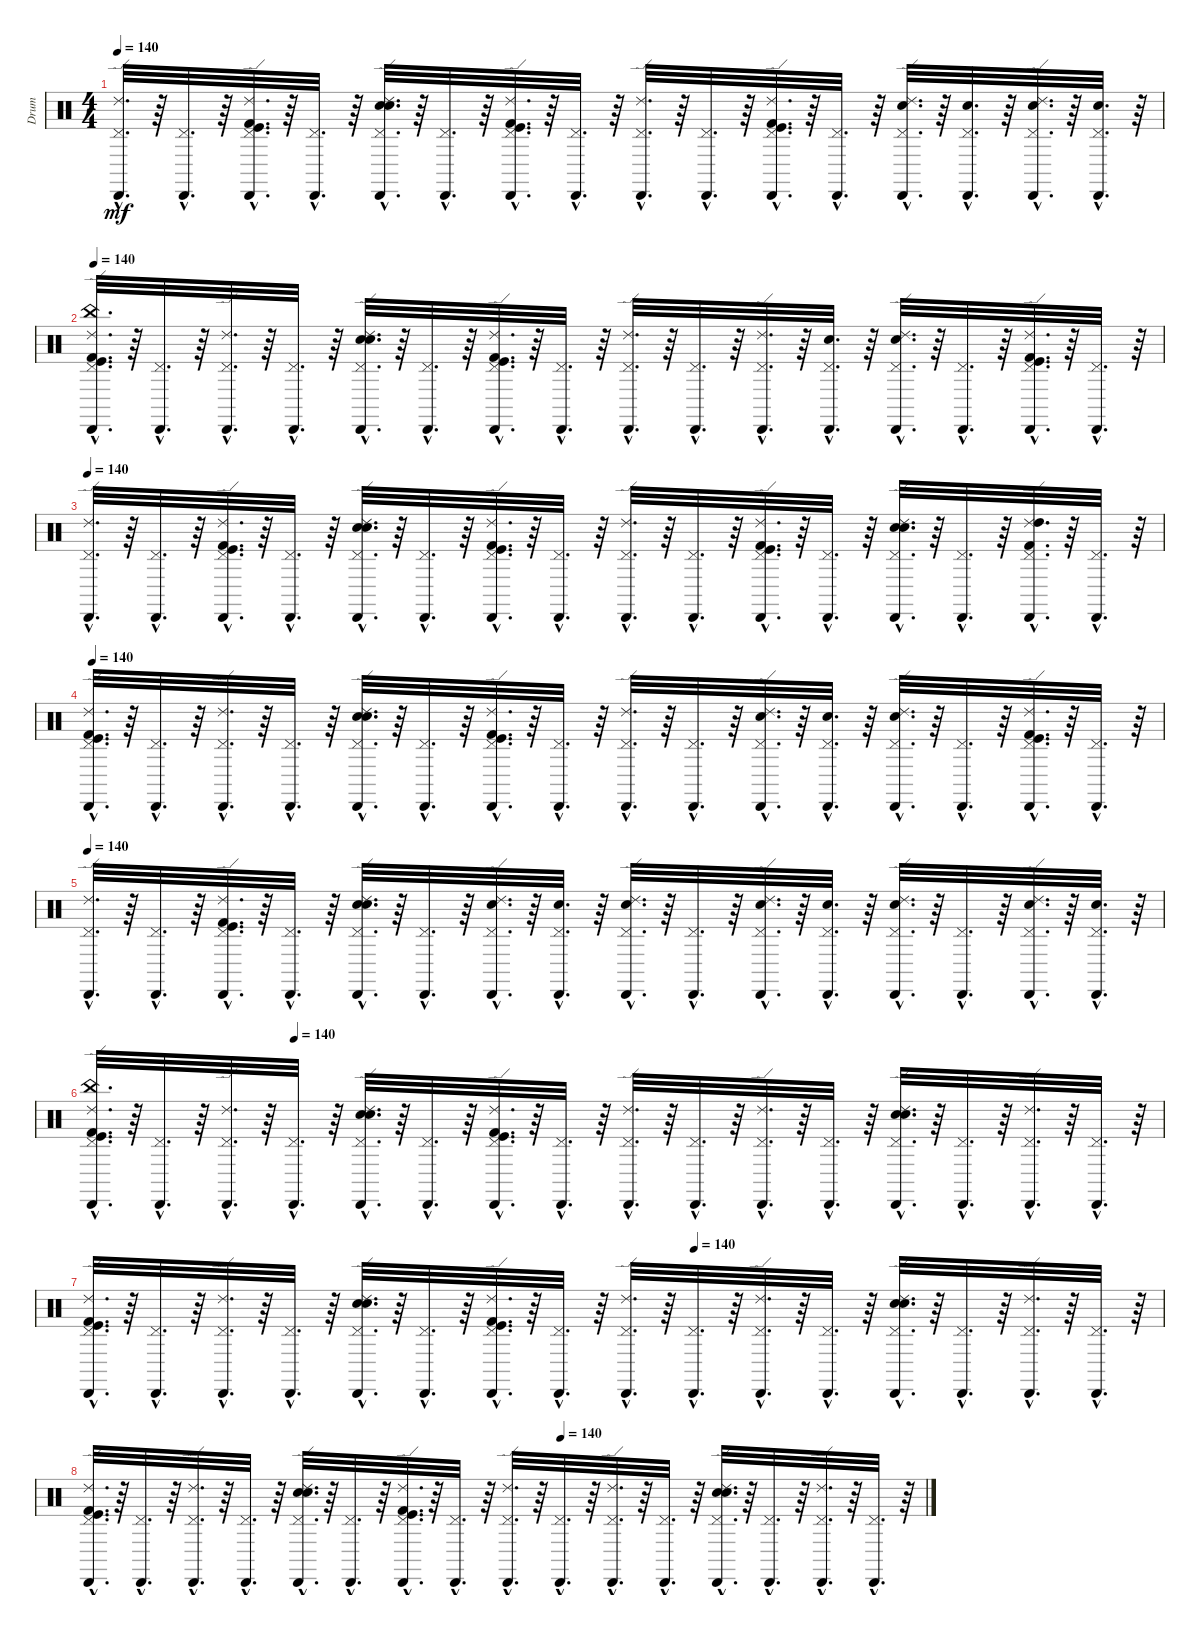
\track ("Drum" "Drum") {instrument percussion}
\staff {score}
\articulation defaults
\ts (4 4)
\tempo 140
\clef neutral
\ks c
("Pedal Hi-Hat (hit)"{hac} "Cabasa (hit)"{hac} "Ride (edge) 2"{hac}).32{d dy mf} r.64 ("Pedal Hi-Hat (hit)"{hac} "Cabasa (hit)"{hac}).32{d} r.64 ("Pedal Hi-Hat (hit)"{hac} "Cabasa (hit)"{hac} "Ride (edge) 2"{hac} "Kick (hit)"{hac} "Kick (hit) 2"{hac}).32{d} r.64 ("Pedal Hi-Hat (hit)"{hac} "Cabasa (hit)"{hac}).32{d} r.64 ("Pedal Hi-Hat (hit)"{hac} "Cabasa (hit)"{hac} "Ride (edge) 2"{hac} "Electric Snare (hit)"{hac} "Snare (hit) 2"{hac}).32{d} r.64 ("Pedal Hi-Hat (hit)"{hac} "Cabasa (hit)"{hac}).32{d} r.64 ("Pedal Hi-Hat (hit)"{hac} "Cabasa (hit)"{hac} "Ride (edge) 2"{hac} "Kick (hit) 2"{hac} "Kick (hit)"{hac}).32{d} r.64 ("Pedal Hi-Hat (hit)"{hac} "Cabasa (hit)"{hac}).32{d} r.64 ("Pedal Hi-Hat (hit)"{hac} "Cabasa (hit)"{hac} "Ride (edge) 2"{hac}).32{d} r.64 ("Pedal Hi-Hat (hit)"{hac} "Cabasa (hit)"{hac}).32{d} r.64 ("Pedal Hi-Hat (hit)"{hac} "Cabasa (hit)"{hac} "Ride (edge) 2"{hac} "Kick (hit)"{hac} "Kick (hit) 2"{hac}).32{d} r.64 ("Pedal Hi-Hat (hit)"{hac} "Cabasa (hit)"{hac}).32{d} r.64 ("Snare (hit) 2"{hac} "Pedal Hi-Hat (hit)"{hac} "Cabasa (hit)"{hac} "Ride (edge) 2"{hac}).32{d} r.64 ("Snare (hit) 2"{hac} "Pedal Hi-Hat (hit)"{hac} "Cabasa (hit)"{hac}).32{d} r.64 ("Snare (hit) 2"{hac} "Pedal Hi-Hat (hit)"{hac} "Cabasa (hit)"{hac} "Ride (edge) 2"{hac}).32{d} r.64 ("Snare (hit) 2"{hac} "Pedal Hi-Hat (hit)"{hac} "Cabasa (hit)"{hac}).32{d} r.64 |
\tempo 140
("China (hit)"{hac} "Kick (hit) 2"{hac} "Kick (hit)"{hac} "Ride (edge) 2"{hac} "Cabasa (hit)"{hac} "Pedal Hi-Hat (hit)"{hac}).32{d} r.64 ("Cabasa (hit)"{hac} "Pedal Hi-Hat (hit)"{hac}).32{d} r.64 ("Ride (edge) 2"{hac} "Cabasa (hit)"{hac} "Pedal Hi-Hat (hit)"{hac}).32{d} r.64 ("Cabasa (hit)"{hac} "Pedal Hi-Hat (hit)"{hac}).32{d} r.64 ("Snare (hit) 2"{hac} "Electric Snare (hit)"{hac} "Ride (edge) 2"{hac} "Cabasa (hit)"{hac} "Pedal Hi-Hat (hit)"{hac}).32{d} r.64 ("Cabasa (hit)"{hac} "Pedal Hi-Hat (hit)"{hac}).32{d} r.64 ("Kick (hit)"{hac} "Kick (hit) 2"{hac} "Ride (edge) 2"{hac} "Cabasa (hit)"{hac} "Pedal Hi-Hat (hit)"{hac}).32{d} r.64 ("Cabasa (hit)"{hac} "Pedal Hi-Hat (hit)"{hac}).32{d} r.64 ("Ride (edge) 2"{hac} "Cabasa (hit)"{hac} "Pedal Hi-Hat (hit)"{hac}).32{d} r.64 ("Cabasa (hit)"{hac} "Pedal Hi-Hat (hit)"{hac}).32{d} r.64 ("Ride (edge) 2"{hac} "Cabasa (hit)"{hac} "Pedal Hi-Hat (hit)"{hac}).32{d} r.64 ("Cabasa (hit)"{hac} "Pedal Hi-Hat (hit)"{hac} "Snare (hit) 2"{hac}).32{d} r.64 ("Ride (edge) 2"{hac} "Cabasa (hit)"{hac} "Pedal Hi-Hat (hit)"{hac} "Snare (hit) 2"{hac}).32{d} r.64 ("Cabasa (hit)"{hac} "Pedal Hi-Hat (hit)"{hac}).32{d} r.64 ("Ride (edge) 2"{hac} "Cabasa (hit)"{hac} "Pedal Hi-Hat (hit)"{hac} "Kick (hit)"{hac} "Kick (hit) 2"{hac}).32{d} r.64 ("Cabasa (hit)"{hac} "Pedal Hi-Hat (hit)"{hac}).32{d} r.64 |
\tempo 140
("Pedal Hi-Hat (hit)"{hac} "Cabasa (hit)"{hac} "Ride (edge) 2"{hac}).32{d} r.64 ("Pedal Hi-Hat (hit)"{hac} "Cabasa (hit)"{hac}).32{d} r.64 ("Pedal Hi-Hat (hit)"{hac} "Cabasa (hit)"{hac} "Ride (edge) 2"{hac} "Kick (hit)"{hac} "Kick (hit) 2"{hac}).32{d} r.64 ("Pedal Hi-Hat (hit)"{hac} "Cabasa (hit)"{hac}).32{d} r.64 ("Pedal Hi-Hat (hit)"{hac} "Cabasa (hit)"{hac} "Ride (edge) 2"{hac} "Electric Snare (hit)"{hac} "Snare (hit) 2"{hac}).32{d} r.64 ("Pedal Hi-Hat (hit)"{hac} "Cabasa (hit)"{hac}).32{d} r.64 ("Pedal Hi-Hat (hit)"{hac} "Cabasa (hit)"{hac} "Ride (edge) 2"{hac} "Kick (hit) 2"{hac} "Kick (hit)"{hac}).32{d} r.64 ("Pedal Hi-Hat (hit)"{hac} "Cabasa (hit)"{hac}).32{d} r.64 ("Pedal Hi-Hat (hit)"{hac} "Cabasa (hit)"{hac} "Ride (edge) 2"{hac}).32{d} r.64 ("Pedal Hi-Hat (hit)"{hac} "Cabasa (hit)"{hac}).32{d} r.64 ("Pedal Hi-Hat (hit)"{hac} "Cabasa (hit)"{hac} "Ride (edge) 2"{hac} "Kick (hit)"{hac} "Kick (hit) 2"{hac}).32{d} r.64 ("Pedal Hi-Hat (hit)"{hac} "Cabasa (hit)"{hac}).32{d} r.64 ("Pedal Hi-Hat (hit)"{hac} "Cabasa (hit)"{hac} "Ride (edge) 2"{hac} "Snare (hit) 2"{hac} "Electric Snare (hit)"{hac}).32{d} r.64 ("Pedal Hi-Hat (hit)"{hac} "Cabasa (hit)"{hac}).32{d} r.64 ("Pedal Hi-Hat (hit)"{hac} "Cabasa (hit)"{hac} "Ride (edge) 2"{hac} "High Tom (hit)"{hac} "Kick (hit) 2"{hac}).32{d} r.64 ("Pedal Hi-Hat (hit)"{hac} "Cabasa (hit)"{hac}).32{d} r.64 |
\tempo 140
("Kick (hit)"{hac} "Kick (hit) 2"{hac} "Cabasa (hit)"{hac} "Pedal Hi-Hat (hit)"{hac} "Ride (edge) 2"{hac}).32{d} r.64 ("Pedal Hi-Hat (hit)"{hac} "Cabasa (hit)"{hac}).32{d} r.64 ("Ride (edge) 2"{hac} "Cabasa (hit)"{hac} "Pedal Hi-Hat (hit)"{hac}).32{d} r.64 ("Pedal Hi-Hat (hit)"{hac} "Cabasa (hit)"{hac}).32{d} r.64 ("Ride (edge) 2"{hac} "Snare (hit) 2"{hac} "Cabasa (hit)"{hac} "Electric Snare (hit)"{hac} "Pedal Hi-Hat (hit)"{hac}).32{d} r.64 ("Pedal Hi-Hat (hit)"{hac} "Cabasa (hit)"{hac}).32{d} r.64 ("Pedal Hi-Hat (hit)"{hac} "Kick (hit)"{hac} "Cabasa (hit)"{hac} "Kick (hit) 2"{hac} "Ride (edge) 2"{hac}).32{d} r.64 ("Pedal Hi-Hat (hit)"{hac} "Cabasa (hit)"{hac}).32{d} r.64 ("Ride (edge) 2"{hac} "Cabasa (hit)"{hac} "Pedal Hi-Hat (hit)"{hac}).32{d} r.64 ("Cabasa (hit)"{hac} "Pedal Hi-Hat (hit)"{hac}).32{d} r.64 ("Cabasa (hit)"{hac} "Pedal Hi-Hat (hit)"{hac} "Ride (edge) 2"{hac} "Snare (hit) 2"{hac}).32{d} r.64 ("Cabasa (hit)"{hac} "Pedal Hi-Hat (hit)"{hac} "Snare (hit) 2"{hac}).32{d} r.64 ("Ride (edge) 2"{hac} "Pedal Hi-Hat (hit)"{hac} "Cabasa (hit)"{hac} "Snare (hit) 2"{hac}).32{d} r.64 ("Cabasa (hit)"{hac} "Pedal Hi-Hat (hit)"{hac}).32{d} r.64 ("Ride (edge) 2"{hac} "Cabasa (hit)"{hac} "Pedal Hi-Hat (hit)"{hac} "Kick (hit)"{hac} "Kick (hit) 2"{hac}).32{d} r.64 ("Cabasa (hit)"{hac} "Pedal Hi-Hat (hit)"{hac}).32{d} r.64 |
\tempo 140
("Ride (edge) 2"{hac} "Cabasa (hit)"{hac} "Pedal Hi-Hat (hit)"{hac}).32{d} r.64 ("Cabasa (hit)"{hac} "Pedal Hi-Hat (hit)"{hac}).32{d} r.64 ("Kick (hit) 2"{hac} "Kick (hit)"{hac} "Ride (edge) 2"{hac} "Cabasa (hit)"{hac} "Pedal Hi-Hat (hit)"{hac}).32{d} r.64 ("Cabasa (hit)"{hac} "Pedal Hi-Hat (hit)"{hac}).32{d} r.64 ("Snare (hit) 2"{hac} "Electric Snare (hit)"{hac} "Ride (edge) 2"{hac} "Cabasa (hit)"{hac} "Pedal Hi-Hat (hit)"{hac}).32{d} r.64 ("Cabasa (hit)"{hac} "Pedal Hi-Hat (hit)"{hac}).32{d} r.64 ("Snare (hit) 2"{hac} "Ride (edge) 2"{hac} "Cabasa (hit)"{hac} "Pedal Hi-Hat (hit)"{hac}).32{d} r.64 ("Snare (hit) 2"{hac} "Cabasa (hit)"{hac} "Pedal Hi-Hat (hit)"{hac}).32{d} r.64 ("Snare (hit) 2"{hac} "Ride (edge) 2"{hac} "Cabasa (hit)"{hac} "Pedal Hi-Hat (hit)"{hac}).32{d} r.64 ("Cabasa (hit)"{hac} "Pedal Hi-Hat (hit)"{hac}).32{d} r.64 ("Snare (hit) 2"{hac} "Ride (edge) 2"{hac} "Cabasa (hit)"{hac} "Pedal Hi-Hat (hit)"{hac}).32{d} r.64 ("Snare (hit) 2"{hac} "Cabasa (hit)"{hac} "Pedal Hi-Hat (hit)"{hac}).32{d} r.64 ("Snare (hit) 2"{hac} "Ride (edge) 2"{hac} "Cabasa (hit)"{hac} "Pedal Hi-Hat (hit)"{hac}).32{d} r.64 ("Cabasa (hit)"{hac} "Pedal Hi-Hat (hit)"{hac}).32{d} r.64 ("Snare (hit) 2"{hac} "Ride (edge) 2"{hac} "Cabasa (hit)"{hac} "Pedal Hi-Hat (hit)"{hac}).32{d} r.64 ("Snare (hit) 2"{hac} "Cabasa (hit)"{hac} "Pedal Hi-Hat (hit)"{hac}).32{d} r.64 |
\tempo (140 0.1875)
("Cabasa (hit)"{hac} "Ride (edge) 2"{hac} "Pedal Hi-Hat (hit)"{hac} "Kick (hit)"{hac} "Kick (hit) 2"{hac} "China (hit)"{hac}).32{d} r.64 ("Pedal Hi-Hat (hit)"{hac} "Cabasa (hit)"{hac}).32{d} r.64 ("Ride (edge) 2"{hac} "Cabasa (hit)"{hac} "Pedal Hi-Hat (hit)"{hac}).32{d} r.64 ("Cabasa (hit)"{hac} "Pedal Hi-Hat (hit)"{hac}).32{d} r.64 ("Ride (edge) 2"{hac} "Cabasa (hit)"{hac} "Electric Snare (hit)"{hac} "Snare (hit) 2"{hac} "Pedal Hi-Hat (hit)"{hac}).32{d} r.64 ("Cabasa (hit)"{hac} "Pedal Hi-Hat (hit)"{hac}).32{d} r.64 ("Cabasa (hit)"{hac} "Pedal Hi-Hat (hit)"{hac} "Ride (edge) 2"{hac} "Kick (hit) 2"{hac} "Kick (hit)"{hac}).32{d} r.64 ("Cabasa (hit)"{hac} "Pedal Hi-Hat (hit)"{hac}).32{d} r.64 ("Pedal Hi-Hat (hit)"{hac} "Cabasa (hit)"{hac} "Ride (edge) 2"{hac}).32{d} r.64 ("Cabasa (hit)"{hac} "Pedal Hi-Hat (hit)"{hac}).32{d} r.64 ("Cabasa (hit)"{hac} "Pedal Hi-Hat (hit)"{hac} "Ride (edge) 2"{hac}).32{d} r.64 ("Cabasa (hit)"{hac} "Pedal Hi-Hat (hit)"{hac}).32{d} r.64 ("Cabasa (hit)"{hac} "Pedal Hi-Hat (hit)"{hac} "Ride (edge) 2"{hac} "Snare (hit) 2"{hac} "Electric Snare (hit)"{hac}).32{d} r.64 ("Cabasa (hit)"{hac} "Pedal Hi-Hat (hit)"{hac}).32{d} r.64 ("Ride (edge) 2"{hac} "Cabasa (hit)"{hac} "Pedal Hi-Hat (hit)"{hac}).32{d} r.64 ("Cabasa (hit)"{hac} "Pedal Hi-Hat (hit)"{hac}).32{d} r.64 |
\tempo (140 0.5625)
("Pedal Hi-Hat (hit)"{hac} "Cabasa (hit)"{hac} "Ride (edge) 2"{hac} "Kick (hit)"{hac} "Kick (hit) 2"{hac}).32{d} r.64 ("Pedal Hi-Hat (hit)"{hac} "Cabasa (hit)"{hac}).32{d} r.64 ("Pedal Hi-Hat (hit)"{hac} "Cabasa (hit)"{hac} "Ride (edge) 2"{hac}).32{d} r.64 ("Pedal Hi-Hat (hit)"{hac} "Cabasa (hit)"{hac}).32{d} r.64 ("Pedal Hi-Hat (hit)"{hac} "Cabasa (hit)"{hac} "Ride (edge) 2"{hac} "Electric Snare (hit)"{hac} "Snare (hit) 2"{hac}).32{d} r.64 ("Pedal Hi-Hat (hit)"{hac} "Cabasa (hit)"{hac}).32{d} r.64 ("Pedal Hi-Hat (hit)"{hac} "Cabasa (hit)"{hac} "Ride (edge) 2"{hac} "Kick (hit) 2"{hac} "Kick (hit)"{hac}).32{d} r.64 ("Pedal Hi-Hat (hit)"{hac} "Cabasa (hit)"{hac}).32{d} r.64 ("Pedal Hi-Hat (hit)"{hac} "Cabasa (hit)"{hac} "Ride (edge) 2"{hac}).32{d} r.64 ("Pedal Hi-Hat (hit)"{hac} "Cabasa (hit)"{hac}).32{d} r.64 ("Pedal Hi-Hat (hit)"{hac} "Cabasa (hit)"{hac} "Ride (edge) 2"{hac}).32{d} r.64 ("Pedal Hi-Hat (hit)"{hac} "Cabasa (hit)"{hac}).32{d} r.64 ("Pedal Hi-Hat (hit)"{hac} "Cabasa (hit)"{hac} "Ride (edge) 2"{hac} "Snare (hit) 2"{hac} "Electric Snare (hit)"{hac}).32{d} r.64 ("Pedal Hi-Hat (hit)"{hac} "Cabasa (hit)"{hac}).32{d} r.64 ("Pedal Hi-Hat (hit)"{hac} "Cabasa (hit)"{hac} "Ride (edge) 2"{hac}).32{d} r.64 ("Pedal Hi-Hat (hit)"{hac} "Cabasa (hit)"{hac}).32{d} r.64 |
\tempo (140 0.5625)
("Ride (edge) 2"{hac} "Kick (hit)"{hac} "Pedal Hi-Hat (hit)"{hac} "Kick (hit) 2"{hac} "Cabasa (hit)"{hac}).32{d} r.64 ("Pedal Hi-Hat (hit)"{hac} "Cabasa (hit)"{hac}).32{d} r.64 ("Ride (edge) 2"{hac} "Cabasa (hit)"{hac} "Pedal Hi-Hat (hit)"{hac}).32{d} r.64 ("Cabasa (hit)"{hac} "Pedal Hi-Hat (hit)"{hac}).32{d} r.64 ("Pedal Hi-Hat (hit)"{hac} "Electric Snare (hit)"{hac} "Ride (edge) 2"{hac} "Cabasa (hit)"{hac} "Snare (hit) 2"{hac}).32{d} r.64 ("Cabasa (hit)"{hac} "Pedal Hi-Hat (hit)"{hac}).32{d} r.64 ("Pedal Hi-Hat (hit)"{hac} "Ride (edge) 2"{hac} "Kick (hit) 2"{hac} "Cabasa (hit)"{hac} "Kick (hit)"{hac}).32{d} r.64 ("Pedal Hi-Hat (hit)"{hac} "Cabasa (hit)"{hac}).32{d} r.64 ("Cabasa (hit)"{hac} "Ride (edge) 2"{hac} "Pedal Hi-Hat (hit)"{hac}).32{d} r.64 ("Cabasa (hit)"{hac} "Pedal Hi-Hat (hit)"{hac}).32{d} r.64 ("Pedal Hi-Hat (hit)"{hac} "Ride (edge) 2"{hac} "Cabasa (hit)"{hac}).32{d} r.64 ("Pedal Hi-Hat (hit)"{hac} "Cabasa (hit)"{hac}).32{d} r.64 ("Snare (hit) 2"{hac} "Electric Snare (hit)"{hac} "Cabasa (hit)"{hac} "Pedal Hi-Hat (hit)"{hac} "Ride (edge) 2"{hac}).32{d} r.64 ("Cabasa (hit)"{hac} "Pedal Hi-Hat (hit)"{hac}).32{d} r.64 ("Pedal Hi-Hat (hit)"{hac} "Ride (edge) 2"{hac} "Cabasa (hit)"{hac}).32{d} r.64 ("Cabasa (hit)"{hac} "Pedal Hi-Hat (hit)"{hac}).32{d} r.64
